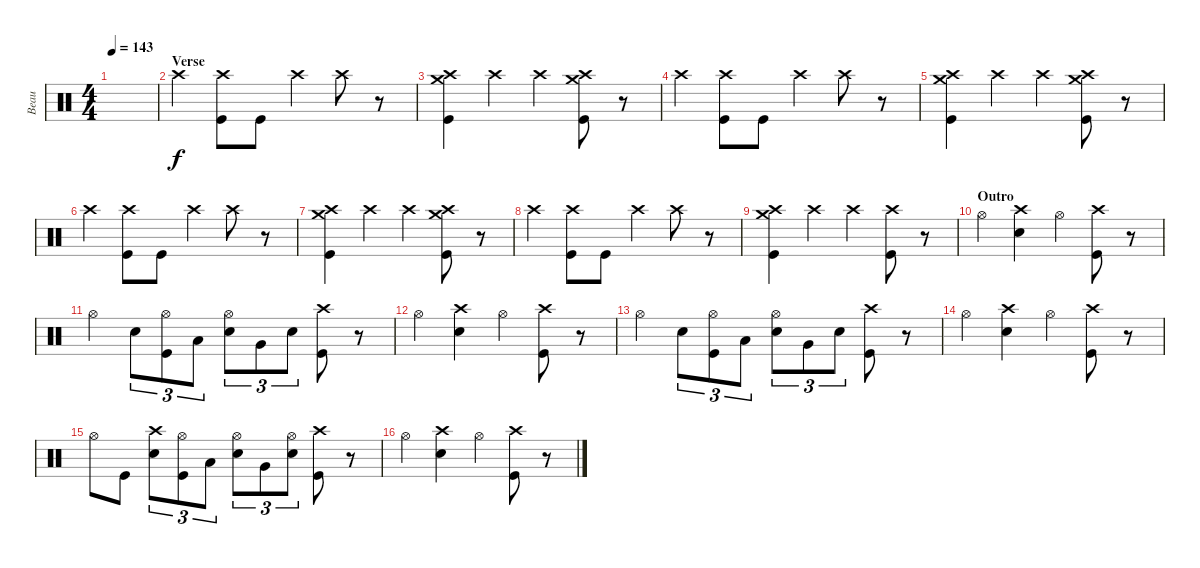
\track ("Beau" "Beau") {instrument percussion}
\staff {score}
\articulation defaults
\ts (4 4)
\tempo 143
\clef neutral
\ks c
|
\section ("" "Verse")
"Crash high (hit)".4 ("Kick (hit)" "Crash high (hit)").8 "Kick (hit)".8 "Crash high (hit)".4 "Crash high (hit)".8 r.8 |
("Kick (hit)" "Crash medium (hit)" "Crash high (hit)").4 "Crash high (hit)".4 "Crash high (hit)".4 ("Kick (hit)" "Crash medium (hit)" "Crash high (hit)").8 r.8 |
"Crash high (hit)".4 ("Kick (hit)" "Crash high (hit)").8 "Kick (hit)".8 "Crash high (hit)".4 "Crash high (hit)".8 r.8 |
("Kick (hit)" "Crash medium (hit)" "Crash high (hit)").4 "Crash high (hit)".4 "Crash high (hit)".4 ("Kick (hit)" "Crash medium (hit)" "Crash high (hit)").8 r.8 |
"Crash high (hit)".4 ("Kick (hit)" "Crash high (hit)").8 "Kick (hit)".8 "Crash high (hit)".4 "Crash high (hit)".8 r.8 |
("Kick (hit)" "Crash medium (hit)" "Crash high (hit)").4 "Crash high (hit)".4 "Crash high (hit)".4 ("Kick (hit)" "Crash medium (hit)" "Crash high (hit)").8 r.8 |
"Crash high (hit)".4 ("Kick (hit)" "Crash high (hit)").8 "Kick (hit)".8 "Crash high (hit)".4 "Crash high (hit)".8 r.8 |
("Kick (hit)" "Crash medium (hit)" "Crash high (hit)").4 "Crash high (hit)".4 "Crash high (hit)".4 ("Kick (hit)" "Crash high (hit)").8 r.8 |
\section ("" "Outro")
"Hi-Hat (open)".4 ("Snare (hit) 2" "Crash high (hit)").4 "Hi-Hat (open)".4 ("Kick (hit)" "Crash high (hit)").8 r.8 |
"Hi-Hat (open)".4 "Snare (hit) 2".8{tu (3 2)} ("Kick (hit)" "Hi-Hat (open)").8{tu (3 2)} "Low Tom (hit)".8{tu (3 2)} ("Snare (hit) 2" "Hi-Hat (open)").8{tu (3 2)} "Very Low Tom (hit)".8{tu (3 2)} "Snare (hit) 2".8{tu (3 2)} ("Kick (hit)" "Crash high (hit)").8 r.8 |
"Hi-Hat (open)".4 ("Snare (hit) 2" "Crash high (hit)").4 "Hi-Hat (open)".4 ("Kick (hit)" "Crash high (hit)").8 r.8 |
"Hi-Hat (open)".4 "Snare (hit) 2".8{tu (3 2)} ("Kick (hit)" "Hi-Hat (open)").8{tu (3 2)} "Low Tom (hit)".8{tu (3 2)} ("Snare (hit) 2" "Hi-Hat (open)").8{tu (3 2)} "Very Low Tom (hit)".8{tu (3 2)} "Snare (hit) 2".8{tu (3 2)} ("Kick (hit)" "Crash high (hit)").8 r.8 |
"Hi-Hat (open)".4 ("Snare (hit) 2" "Crash high (hit)").4 "Hi-Hat (open)".4 ("Kick (hit)" "Crash high (hit)").8 r.8 |
"Hi-Hat (open)".8 "Kick (hit)".8 ("Snare (hit) 2" "Crash high (hit)").8{tu (3 2)} ("Kick (hit)" "Hi-Hat (open)").8{tu (3 2)} "Low Tom (hit)".8{tu (3 2)} ("Snare (hit) 2" "Hi-Hat (open)").8{tu (3 2)} "Very Low Tom (hit)".8{tu (3 2)} ("Snare (hit) 2" "Hi-Hat (open)").8{tu (3 2)} ("Kick (hit)" "Crash high (hit)").8 r.8 |
"Hi-Hat (open)".4 ("Snare (hit) 2" "Crash high (hit)").4 "Hi-Hat (open)".4 ("Kick (hit)" "Crash high (hit)").8 r.8
